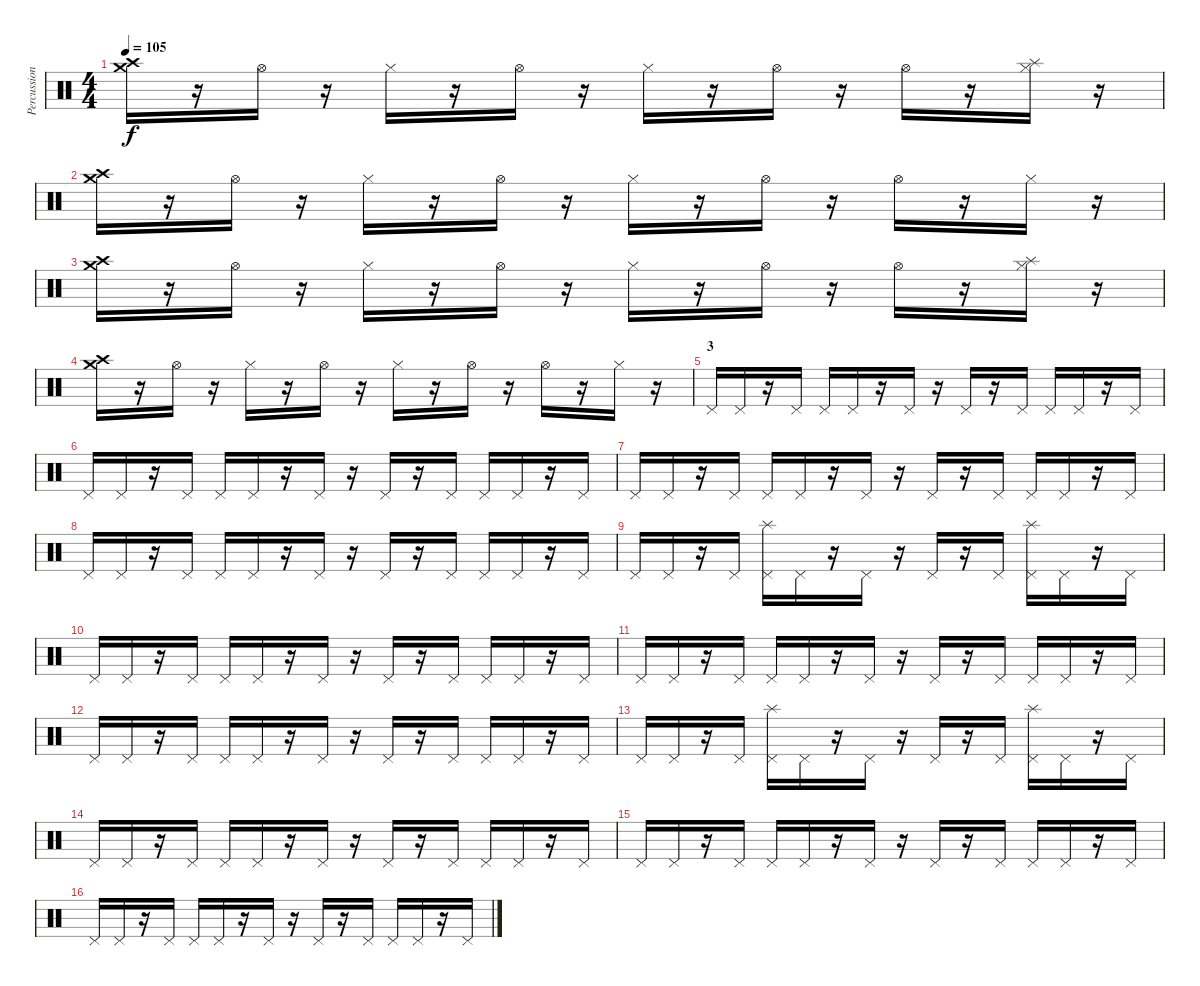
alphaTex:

\track ("Percussions+(scratchs Dj ombre)" "Percussion") {instrument percussion}
\staff {score}
\articulation defaults
\ts (4 4)
\tempo 105
\clef neutral
\ks c
("Crash high (hit)" "Crash medium (hit)").16{dy f} r.16 "Hi-Hat (open)".16 r.16 "Hi-Hat (closed)".16 r.16 "Hi-Hat (open)".16 r.16 "Hi-Hat (closed)".16 r.16 "Hi-Hat (open)".16 r.16 "Hi-Hat (open)".16 r.16 ("Hi-Hat (closed)" "Splash (hit)").16 r.16 |
("Crash high (hit)" "Crash medium (hit)").16 r.16 "Hi-Hat (open)".16 r.16 "Hi-Hat (closed)".16 r.16 "Hi-Hat (open)".16 r.16 "Hi-Hat (closed)".16 r.16 "Hi-Hat (open)".16 r.16 "Hi-Hat (open)".16 r.16 "Hi-Hat (closed)".16 r.16 |
("Crash high (hit)" "Crash medium (hit)").16 r.16 "Hi-Hat (open)".16 r.16 "Hi-Hat (closed)".16 r.16 "Hi-Hat (open)".16 r.16 "Hi-Hat (closed)".16 r.16 "Hi-Hat (open)".16 r.16 "Hi-Hat (open)".16 r.16 ("Hi-Hat (closed)" "Splash (hit)").16 r.16 |
("Crash high (hit)" "Crash medium (hit)").16 r.16 "Hi-Hat (open)".16 r.16 "Hi-Hat (closed)".16 r.16 "Hi-Hat (open)".16 r.16 "Hi-Hat (closed)".16 r.16 "Hi-Hat (open)".16 r.16 "Hi-Hat (open)".16 r.16 "Hi-Hat (closed)".16 r.16 |
\section ("" "3")
"Pedal Hi-Hat (hit)".16 "Pedal Hi-Hat (hit)".16 r.16 "Pedal Hi-Hat (hit)".16 "Pedal Hi-Hat (hit)".16 "Pedal Hi-Hat (hit)".16 r.16 "Pedal Hi-Hat (hit)".16 r.16 "Pedal Hi-Hat (hit)".16 r.16 "Pedal Hi-Hat (hit)".16 "Pedal Hi-Hat (hit)".16 "Pedal Hi-Hat (hit)".16 r.16 "Pedal Hi-Hat (hit)".16 |
"Pedal Hi-Hat (hit)".16 "Pedal Hi-Hat (hit)".16 r.16 "Pedal Hi-Hat (hit)".16 "Pedal Hi-Hat (hit)".16 "Pedal Hi-Hat (hit)".16 r.16 "Pedal Hi-Hat (hit)".16 r.16 "Pedal Hi-Hat (hit)".16 r.16 "Pedal Hi-Hat (hit)".16 "Pedal Hi-Hat (hit)".16 "Pedal Hi-Hat (hit)".16 r.16 "Pedal Hi-Hat (hit)".16 |
"Pedal Hi-Hat (hit)".16 "Pedal Hi-Hat (hit)".16 r.16 "Pedal Hi-Hat (hit)".16 "Pedal Hi-Hat (hit)".16 "Pedal Hi-Hat (hit)".16 r.16 "Pedal Hi-Hat (hit)".16 r.16 "Pedal Hi-Hat (hit)".16 r.16 "Pedal Hi-Hat (hit)".16 "Pedal Hi-Hat (hit)".16 "Pedal Hi-Hat (hit)".16 r.16 "Pedal Hi-Hat (hit)".16 |
"Pedal Hi-Hat (hit)".16 "Pedal Hi-Hat (hit)".16 r.16 "Pedal Hi-Hat (hit)".16 "Pedal Hi-Hat (hit)".16 "Pedal Hi-Hat (hit)".16 r.16 "Pedal Hi-Hat (hit)".16 r.16 "Pedal Hi-Hat (hit)".16 r.16 "Pedal Hi-Hat (hit)".16 "Pedal Hi-Hat (hit)".16 "Pedal Hi-Hat (hit)".16 r.16 "Pedal Hi-Hat (hit)".16 |
"Pedal Hi-Hat (hit)".16 "Pedal Hi-Hat (hit)".16 r.16 "Pedal Hi-Hat (hit)".16 ("Pedal Hi-Hat (hit)" "Splash (hit)").16{volume 10 balance 16} "Pedal Hi-Hat (hit)".16{volume 10 balance 8} r.16 "Pedal Hi-Hat (hit)".16 r.16 "Pedal Hi-Hat (hit)".16 r.16 "Pedal Hi-Hat (hit)".16 ("Pedal Hi-Hat (hit)" "Splash (hit)").16{balance 0} "Pedal Hi-Hat (hit)".16{balance 8} r.16 "Pedal Hi-Hat (hit)".16 |
"Pedal Hi-Hat (hit)".16 "Pedal Hi-Hat (hit)".16 r.16 "Pedal Hi-Hat (hit)".16 "Pedal Hi-Hat (hit)".16 "Pedal Hi-Hat (hit)".16 r.16 "Pedal Hi-Hat (hit)".16 r.16 "Pedal Hi-Hat (hit)".16 r.16 "Pedal Hi-Hat (hit)".16 "Pedal Hi-Hat (hit)".16 "Pedal Hi-Hat (hit)".16 r.16 "Pedal Hi-Hat (hit)".16 |
"Pedal Hi-Hat (hit)".16 "Pedal Hi-Hat (hit)".16 r.16 "Pedal Hi-Hat (hit)".16 "Pedal Hi-Hat (hit)".16 "Pedal Hi-Hat (hit)".16 r.16 "Pedal Hi-Hat (hit)".16 r.16 "Pedal Hi-Hat (hit)".16 r.16 "Pedal Hi-Hat (hit)".16 "Pedal Hi-Hat (hit)".16 "Pedal Hi-Hat (hit)".16 r.16 "Pedal Hi-Hat (hit)".16 |
"Pedal Hi-Hat (hit)".16 "Pedal Hi-Hat (hit)".16 r.16 "Pedal Hi-Hat (hit)".16 "Pedal Hi-Hat (hit)".16 "Pedal Hi-Hat (hit)".16 r.16 "Pedal Hi-Hat (hit)".16 r.16 "Pedal Hi-Hat (hit)".16 r.16 "Pedal Hi-Hat (hit)".16 "Pedal Hi-Hat (hit)".16 "Pedal Hi-Hat (hit)".16 r.16 "Pedal Hi-Hat (hit)".16 |
"Pedal Hi-Hat (hit)".16 "Pedal Hi-Hat (hit)".16 r.16 "Pedal Hi-Hat (hit)".16 ("Pedal Hi-Hat (hit)" "Splash (hit)").16{volume 10 balance 16} "Pedal Hi-Hat (hit)".16{volume 10 balance 8} r.16 "Pedal Hi-Hat (hit)".16 r.16 "Pedal Hi-Hat (hit)".16 r.16 "Pedal Hi-Hat (hit)".16 ("Pedal Hi-Hat (hit)" "Splash (hit)").16{balance 0} "Pedal Hi-Hat (hit)".16{balance 8} r.16 "Pedal Hi-Hat (hit)".16 |
"Pedal Hi-Hat (hit)".16 "Pedal Hi-Hat (hit)".16 r.16 "Pedal Hi-Hat (hit)".16 "Pedal Hi-Hat (hit)".16 "Pedal Hi-Hat (hit)".16 r.16 "Pedal Hi-Hat (hit)".16 r.16 "Pedal Hi-Hat (hit)".16 r.16 "Pedal Hi-Hat (hit)".16 "Pedal Hi-Hat (hit)".16 "Pedal Hi-Hat (hit)".16 r.16 "Pedal Hi-Hat (hit)".16 |
"Pedal Hi-Hat (hit)".16 "Pedal Hi-Hat (hit)".16 r.16 "Pedal Hi-Hat (hit)".16 "Pedal Hi-Hat (hit)".16 "Pedal Hi-Hat (hit)".16 r.16 "Pedal Hi-Hat (hit)".16 r.16 "Pedal Hi-Hat (hit)".16 r.16 "Pedal Hi-Hat (hit)".16 "Pedal Hi-Hat (hit)".16 "Pedal Hi-Hat (hit)".16 r.16 "Pedal Hi-Hat (hit)".16 |
"Pedal Hi-Hat (hit)".16 "Pedal Hi-Hat (hit)".16 r.16 "Pedal Hi-Hat (hit)".16 "Pedal Hi-Hat (hit)".16 "Pedal Hi-Hat (hit)".16 r.16 "Pedal Hi-Hat (hit)".16 r.16 "Pedal Hi-Hat (hit)".16 r.16 "Pedal Hi-Hat (hit)".16 "Pedal Hi-Hat (hit)".16 "Pedal Hi-Hat (hit)".16 r.16 "Pedal Hi-Hat (hit)".16
